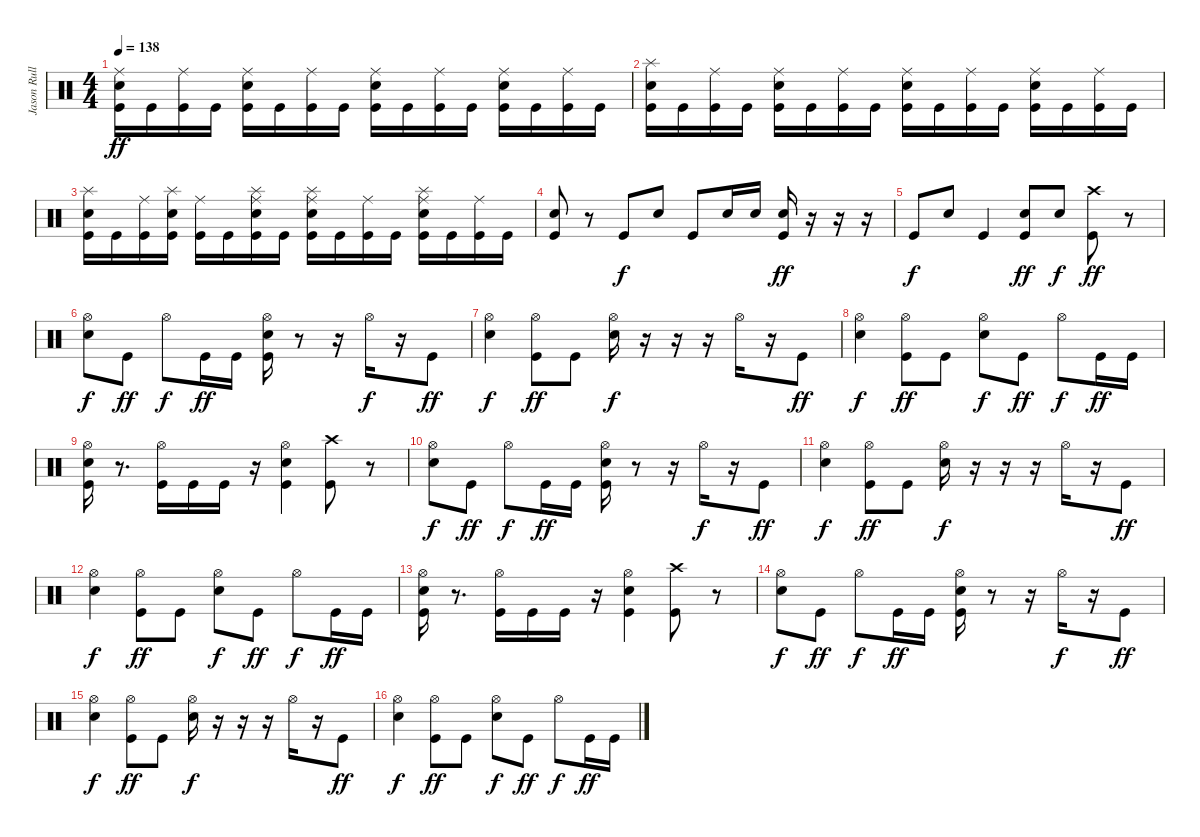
\track ("Jason Rullo" "Jason Rull") {instrument percussion}
\staff {score}
\articulation defaults
\ts (4 4)
\tempo 138
\clef neutral
\ks c
("Kick (hit)" "Snare (hit) 2" "Ride (middle)").16{dy ff} "Kick (hit)".16 ("Kick (hit)" "Ride (middle)").16 "Kick (hit)".16 ("Kick (hit)" "Snare (hit) 2" "Ride (middle)").16 "Kick (hit)".16 ("Kick (hit)" "Ride (middle)").16 "Kick (hit)".16 ("Kick (hit)" "Snare (hit) 2" "Ride (middle)").16 "Kick (hit)".16 ("Kick (hit)" "Ride (middle)").16 "Kick (hit)".16 ("Kick (hit)" "Snare (hit) 2" "Ride (middle)").16 "Kick (hit)".16 ("Kick (hit)" "Ride (middle)").16 "Kick (hit)".16 |
("Kick (hit)" "Snare (hit) 2" "Splash (hit)").16 "Kick (hit)".16 ("Kick (hit)" "Ride (middle)").16 "Kick (hit)".16 ("Kick (hit)" "Snare (hit) 2" "Ride (middle)").16 "Kick (hit)".16 ("Kick (hit)" "Ride (middle)").16 "Kick (hit)".16 ("Kick (hit)" "Snare (hit) 2" "Ride (middle)").16 "Kick (hit)".16 ("Kick (hit)" "Ride (middle)").16 "Kick (hit)".16 ("Kick (hit)" "Snare (hit) 2" "Ride (middle)").16 "Kick (hit)".16 ("Kick (hit)" "Ride (middle)").16 "Kick (hit)".16 |
("Kick (hit)" "Snare (hit) 2" "Splash (hit)").16 "Kick (hit)".16 ("Kick (hit)" "Ride (middle)").16 ("Kick (hit)" "Snare (hit) 2" "Splash (hit)").16 ("Kick (hit)" "Ride (middle)").16 "Kick (hit)".16 ("Kick (hit)" "Snare (hit) 2" "Ride (middle)" "Splash (hit)").16 "Kick (hit)".16 ("Kick (hit)" "Snare (hit) 2" "Ride (middle)" "Splash (hit)").16 "Kick (hit)".16 ("Kick (hit)" "Ride (middle)").16 "Kick (hit)".16 ("Kick (hit)" "Snare (hit) 2" "Ride (middle)" "Splash (hit)").16 "Kick (hit)".16 ("Kick (hit)" "Ride (middle)").16 "Kick (hit)".16 |
("Kick (hit)" "Snare (hit) 2").8 r.8 "Kick (hit)".8{dy f} "Snare (hit) 2".8 "Kick (hit)".8 "Snare (hit) 2".16 "Snare (hit) 2".16 ("Kick (hit)" "Snare (hit) 2").16{dy ff} r.16 r.16 r.16 |
"Kick (hit)".8{dy f} "Snare (hit) 2".8 "Kick (hit)".4 ("Kick (hit)" "Snare (hit) 2").8{dy ff} "Snare (hit) 2".8{dy f} ("Kick (hit)" "Crash high (hit)").8{dy ff} r.8 |
("Snare (hit) 2" "Hi-Hat (open)").8{dy f} "Kick (hit)".8{dy ff} "Hi-Hat (open)".8{dy f} "Kick (hit)".16{dy ff} "Kick (hit)".16 ("Kick (hit)" "Snare (hit) 2" "Hi-Hat (open)").16 r.8 r.16 "Hi-Hat (open)".16{dy f} r.16 "Kick (hit)".8{dy ff} |
("Snare (hit) 2" "Hi-Hat (open)").4{dy f} ("Kick (hit)" "Hi-Hat (open)").8{dy ff} "Kick (hit)".8 ("Snare (hit) 2" "Hi-Hat (open)").16{dy f} r.16 r.16 r.16 "Hi-Hat (open)".16 r.16 "Kick (hit)".8{dy ff} |
("Snare (hit) 2" "Hi-Hat (open)").4{dy f} ("Kick (hit)" "Hi-Hat (open)").8{dy ff} "Kick (hit)".8 ("Snare (hit) 2" "Hi-Hat (open)").8{dy f} "Kick (hit)".8{dy ff} "Hi-Hat (open)".8{dy f} "Kick (hit)".16{dy ff} "Kick (hit)".16 |
("Kick (hit)" "Snare (hit) 2" "Hi-Hat (open)").16 r.8{d} ("Kick (hit)" "Hi-Hat (open)").16 "Kick (hit)".16 "Kick (hit)".16 r.16 ("Kick (hit)" "Snare (hit) 2" "Hi-Hat (open)").4 ("Kick (hit)" "Crash high (hit)").8 r.8 |
("Snare (hit) 2" "Hi-Hat (open)").8{dy f} "Kick (hit)".8{dy ff} "Hi-Hat (open)".8{dy f} "Kick (hit)".16{dy ff} "Kick (hit)".16 ("Kick (hit)" "Snare (hit) 2" "Hi-Hat (open)").16 r.8 r.16 "Hi-Hat (open)".16{dy f} r.16 "Kick (hit)".8{dy ff} |
("Snare (hit) 2" "Hi-Hat (open)").4{dy f} ("Kick (hit)" "Hi-Hat (open)").8{dy ff} "Kick (hit)".8 ("Snare (hit) 2" "Hi-Hat (open)").16{dy f} r.16 r.16 r.16 "Hi-Hat (open)".16 r.16 "Kick (hit)".8{dy ff} |
("Snare (hit) 2" "Hi-Hat (open)").4{dy f} ("Kick (hit)" "Hi-Hat (open)").8{dy ff} "Kick (hit)".8 ("Snare (hit) 2" "Hi-Hat (open)").8{dy f} "Kick (hit)".8{dy ff} "Hi-Hat (open)".8{dy f} "Kick (hit)".16{dy ff} "Kick (hit)".16 |
("Kick (hit)" "Snare (hit) 2" "Hi-Hat (open)").16 r.8{d} ("Kick (hit)" "Hi-Hat (open)").16 "Kick (hit)".16 "Kick (hit)".16 r.16 ("Kick (hit)" "Snare (hit) 2" "Hi-Hat (open)").4 ("Kick (hit)" "Crash high (hit)").8 r.8 |
("Snare (hit) 2" "Hi-Hat (open)").8{dy f} "Kick (hit)".8{dy ff} "Hi-Hat (open)".8{dy f} "Kick (hit)".16{dy ff} "Kick (hit)".16 ("Kick (hit)" "Snare (hit) 2" "Hi-Hat (open)").16 r.8 r.16 "Hi-Hat (open)".16{dy f} r.16 "Kick (hit)".8{dy ff} |
("Snare (hit) 2" "Hi-Hat (open)").4{dy f} ("Kick (hit)" "Hi-Hat (open)").8{dy ff} "Kick (hit)".8 ("Snare (hit) 2" "Hi-Hat (open)").16{dy f} r.16 r.16 r.16 "Hi-Hat (open)".16 r.16 "Kick (hit)".8{dy ff} |
("Snare (hit) 2" "Hi-Hat (open)").4{dy f} ("Kick (hit)" "Hi-Hat (open)").8{dy ff} "Kick (hit)".8 ("Snare (hit) 2" "Hi-Hat (open)").8{dy f} "Kick (hit)".8{dy ff} "Hi-Hat (open)".8{dy f} "Kick (hit)".16{dy ff} "Kick (hit)".16
